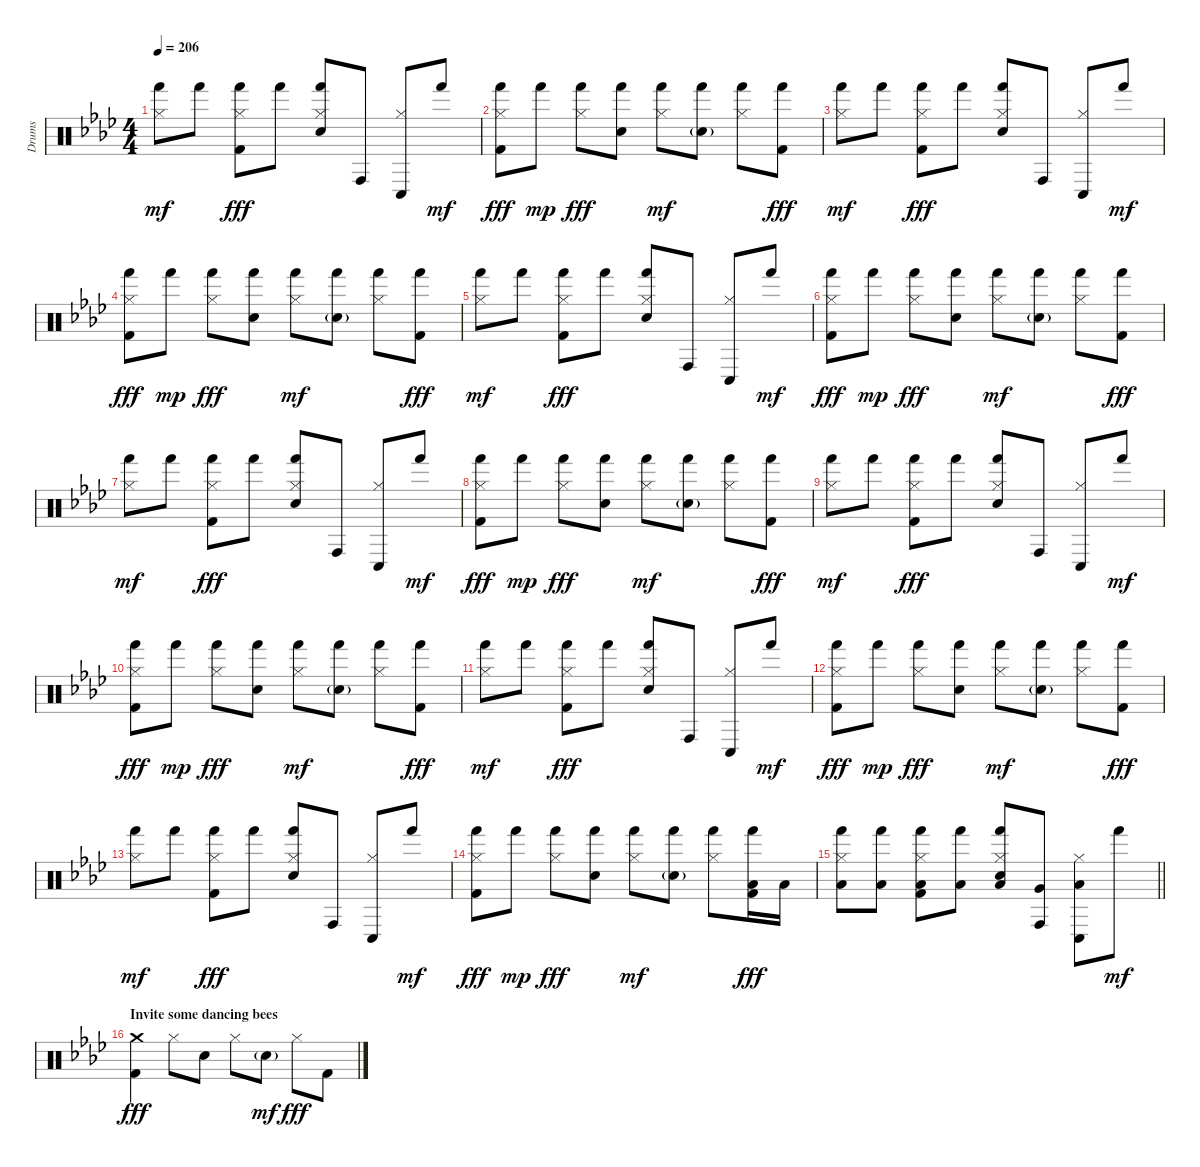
\track ("Drums" "Drums") {instrument percussion}
\staff {score}
\articulation defaults
\ts (4 4)
\tempo 206
\clef neutral
\ks ab
("Hi-Hat (closed)" "Hand (hit)").8{dy mf} "Hand (hit)".8 ("Hi-Hat (closed)" "Hand (hit)" "Kick (hit) 2").8{dy fff} "Hand (hit)".8 ("Hi-Hat (closed)" "Hand (hit)" "Electric Snare (hit)").8 "Conga high (hit)".8 ("Hi-Hat (closed)" "Conga low (hit)").8 "Hand (hit)".8{dy mf} |
("Hi-Hat (closed)" "Hand (hit)" "Kick (hit) 2").8{dy fff} "Hand (hit)".8{dy mp} ("Hi-Hat (closed)" "Hand (hit)").8{dy fff} ("Hand (hit)" "Electric Snare (hit)").8 ("Hi-Hat (closed)" "Hand (hit)").8{dy mf} ("Hand (hit)" "Electric Snare (hit)"{g}).8 ("Hi-Hat (closed)" "Hand (hit)").8 ("Hand (hit)" "Kick (hit) 2").8{dy fff} |
("Hi-Hat (closed)" "Hand (hit)").8{dy mf} "Hand (hit)".8 ("Hi-Hat (closed)" "Hand (hit)" "Kick (hit) 2").8{dy fff} "Hand (hit)".8 ("Hi-Hat (closed)" "Hand (hit)" "Electric Snare (hit)").8 "Conga high (hit)".8 ("Hi-Hat (closed)" "Conga low (hit)").8 "Hand (hit)".8{dy mf} |
("Hi-Hat (closed)" "Hand (hit)" "Kick (hit) 2").8{dy fff} "Hand (hit)".8{dy mp} ("Hi-Hat (closed)" "Hand (hit)").8{dy fff} ("Hand (hit)" "Electric Snare (hit)").8 ("Hi-Hat (closed)" "Hand (hit)").8{dy mf} ("Hand (hit)" "Electric Snare (hit)"{g}).8 ("Hi-Hat (closed)" "Hand (hit)").8 ("Hand (hit)" "Kick (hit) 2").8{dy fff} |
("Hi-Hat (closed)" "Hand (hit)").8{dy mf} "Hand (hit)".8 ("Hi-Hat (closed)" "Hand (hit)" "Kick (hit) 2").8{dy fff} "Hand (hit)".8 ("Hi-Hat (closed)" "Hand (hit)" "Electric Snare (hit)").8 "Conga high (hit)".8 ("Hi-Hat (closed)" "Conga low (hit)").8 "Hand (hit)".8{dy mf} |
("Hi-Hat (closed)" "Hand (hit)" "Kick (hit) 2").8{dy fff} "Hand (hit)".8{dy mp} ("Hi-Hat (closed)" "Hand (hit)").8{dy fff} ("Hand (hit)" "Electric Snare (hit)").8 ("Hi-Hat (closed)" "Hand (hit)").8{dy mf} ("Hand (hit)" "Electric Snare (hit)"{g}).8 ("Hi-Hat (closed)" "Hand (hit)").8 ("Hand (hit)" "Kick (hit) 2").8{dy fff} |
("Hi-Hat (closed)" "Hand (hit)").8{dy mf} "Hand (hit)".8 ("Hi-Hat (closed)" "Hand (hit)" "Kick (hit) 2").8{dy fff} "Hand (hit)".8 ("Hi-Hat (closed)" "Hand (hit)" "Electric Snare (hit)").8 "Conga high (hit)".8 ("Hi-Hat (closed)" "Conga low (hit)").8 "Hand (hit)".8{dy mf} |
("Hi-Hat (closed)" "Hand (hit)" "Kick (hit) 2").8{dy fff} "Hand (hit)".8{dy mp} ("Hi-Hat (closed)" "Hand (hit)").8{dy fff} ("Hand (hit)" "Electric Snare (hit)").8 ("Hi-Hat (closed)" "Hand (hit)").8{dy mf} ("Hand (hit)" "Electric Snare (hit)"{g}).8 ("Hi-Hat (closed)" "Hand (hit)").8 ("Hand (hit)" "Kick (hit) 2").8{dy fff} |
("Hi-Hat (closed)" "Hand (hit)").8{dy mf} "Hand (hit)".8 ("Hi-Hat (closed)" "Hand (hit)" "Kick (hit) 2").8{dy fff} "Hand (hit)".8 ("Hi-Hat (closed)" "Hand (hit)" "Electric Snare (hit)").8 "Conga high (hit)".8 ("Hi-Hat (closed)" "Conga low (hit)").8 "Hand (hit)".8{dy mf} |
("Hi-Hat (closed)" "Hand (hit)" "Kick (hit) 2").8{dy fff} "Hand (hit)".8{dy mp} ("Hi-Hat (closed)" "Hand (hit)").8{dy fff} ("Hand (hit)" "Electric Snare (hit)").8 ("Hi-Hat (closed)" "Hand (hit)").8{dy mf} ("Hand (hit)" "Electric Snare (hit)"{g}).8 ("Hi-Hat (closed)" "Hand (hit)").8 ("Hand (hit)" "Kick (hit) 2").8{dy fff} |
("Hi-Hat (closed)" "Hand (hit)").8{dy mf} "Hand (hit)".8 ("Hi-Hat (closed)" "Hand (hit)" "Kick (hit) 2").8{dy fff} "Hand (hit)".8 ("Hi-Hat (closed)" "Hand (hit)" "Electric Snare (hit)").8 "Conga high (hit)".8 ("Hi-Hat (closed)" "Conga low (hit)").8 "Hand (hit)".8{dy mf} |
("Hi-Hat (closed)" "Hand (hit)" "Kick (hit) 2").8{dy fff} "Hand (hit)".8{dy mp} ("Hi-Hat (closed)" "Hand (hit)").8{dy fff} ("Hand (hit)" "Electric Snare (hit)").8 ("Hi-Hat (closed)" "Hand (hit)").8{dy mf} ("Hand (hit)" "Electric Snare (hit)"{g}).8 ("Hi-Hat (closed)" "Hand (hit)").8 ("Hand (hit)" "Kick (hit) 2").8{dy fff} |
("Hi-Hat (closed)" "Hand (hit)").8{dy mf} "Hand (hit)".8 ("Hi-Hat (closed)" "Hand (hit)" "Kick (hit) 2").8{dy fff} "Hand (hit)".8 ("Hi-Hat (closed)" "Hand (hit)" "Electric Snare (hit)").8 "Conga high (hit)".8 ("Hi-Hat (closed)" "Conga low (hit)").8 "Hand (hit)".8{dy mf} |
("Hi-Hat (closed)" "Hand (hit)" "Kick (hit) 2").8{dy fff} "Hand (hit)".8{dy mp} ("Hi-Hat (closed)" "Hand (hit)").8{dy fff} ("Hand (hit)" "Electric Snare (hit)").8 ("Hi-Hat (closed)" "Hand (hit)").8{dy mf} ("Hand (hit)" "Electric Snare (hit)"{g}).8 ("Hi-Hat (closed)" "Hand (hit)").8 ("Hand (hit)" "Low Tom (hit)" "Kick (hit) 2").16{dy fff} "Low Tom (hit)".16 |
\barLineRight lightlight
("Hi-Hat (closed)" "Hand (hit)" "Low Tom (hit)").8 ("Hand (hit)" "Low Tom (hit)").8 ("Hi-Hat (closed)" "Hand (hit)" "Low Tom (hit)" "Kick (hit) 2").8 ("Hand (hit)" "Low Tom (hit)").8 ("Hi-Hat (closed)" "Hand (hit)" "Low Tom (hit)" "Electric Snare (hit)").8 ("Conga high (hit)" "Very Low Tom (hit)").8 ("Hi-Hat (closed)" "Conga low (hit)" "Low Floor Tom (hit)").8 "Hand (hit)".8{dy mf} |
\section ("" "Invite some dancing bees")
("Crash medium (hit)" "Kick (hit) 2").4{dy fff} "Hi-Hat (closed)".8 "Electric Snare (hit)".8 "Hi-Hat (closed)".8 "Electric Snare (hit)"{g}.8{dy mf} "Hi-Hat (closed)".8{dy fff} "Kick (hit) 2".8
